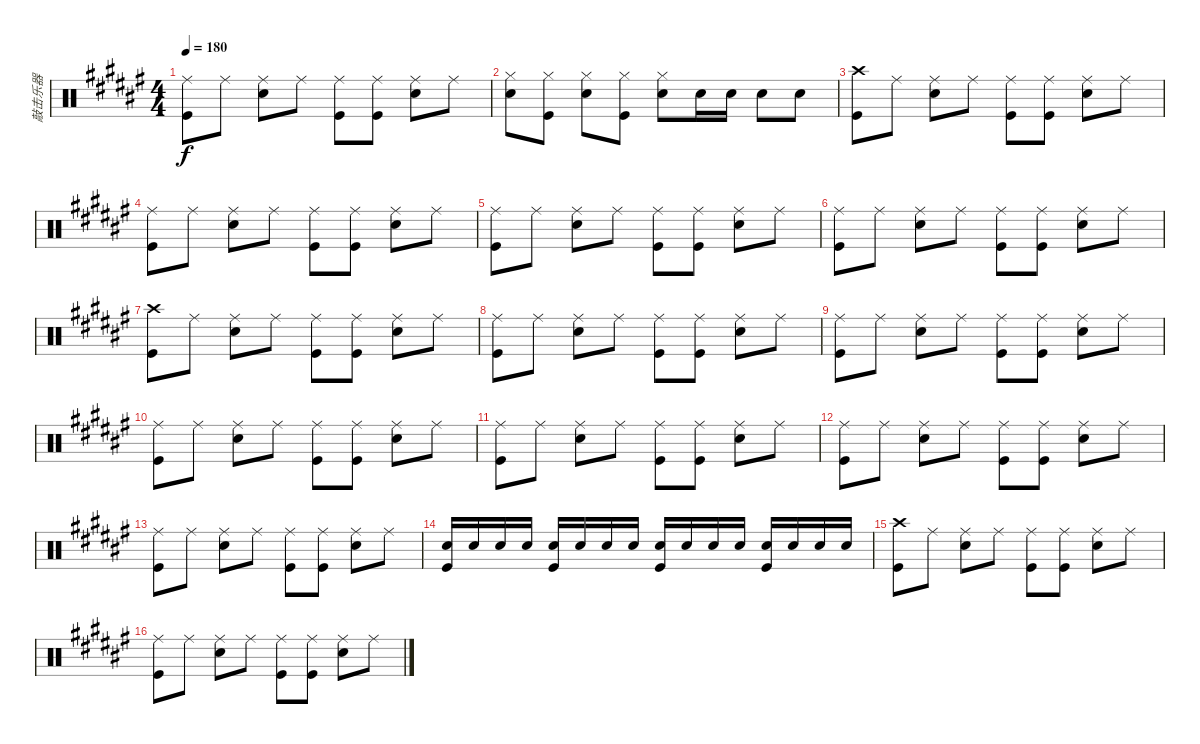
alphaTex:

\track ("敲击乐器" "敲击乐器") {instrument percussion}
\staff {score}
\articulation defaults
\ts (4 4)
\tempo 180
\clef neutral
\ks f#
("Ride (middle)" "Kick (hit)").8{dy f} "Ride (middle)".8 ("Ride (middle)" "Electric Snare (hit)").8 "Ride (middle)".8 ("Ride (middle)" "Kick (hit)").8 ("Ride (middle)" "Kick (hit)").8 ("Ride (middle)" "Electric Snare (hit)").8 "Ride (middle)".8 |
("Hi-Hat (closed)" "Electric Snare (hit)").8 ("Hi-Hat (closed)" "Kick (hit)").8 ("Hi-Hat (closed)" "Electric Snare (hit)").8 ("Hi-Hat (closed)" "Kick (hit)").8 ("Hi-Hat (closed)" "Electric Snare (hit)").8 "Electric Snare (hit)".16 "Electric Snare (hit)".16 "Electric Snare (hit)".8 "Electric Snare (hit)".8 |
("Crash high (hit)" "Kick (hit)").8 "Ride (middle)".8 ("Ride (middle)" "Electric Snare (hit)").8 "Ride (middle)".8 ("Ride (middle)" "Kick (hit)").8 ("Ride (middle)" "Kick (hit)").8 ("Ride (middle)" "Electric Snare (hit)").8 "Ride (middle)".8 |
("Ride (middle)" "Kick (hit)").8 "Ride (middle)".8 ("Ride (middle)" "Electric Snare (hit)").8 "Ride (middle)".8 ("Ride (middle)" "Kick (hit)").8 ("Ride (middle)" "Kick (hit)").8 ("Ride (middle)" "Electric Snare (hit)").8 "Ride (middle)".8 |
("Ride (middle)" "Kick (hit)").8 "Ride (middle)".8 ("Ride (middle)" "Electric Snare (hit)").8 "Ride (middle)".8 ("Ride (middle)" "Kick (hit)").8 ("Ride (middle)" "Kick (hit)").8 ("Ride (middle)" "Electric Snare (hit)").8 "Ride (middle)".8 |
("Ride (middle)" "Kick (hit)").8 "Ride (middle)".8 ("Ride (middle)" "Electric Snare (hit)").8 "Ride (middle)".8 ("Ride (middle)" "Kick (hit)").8 ("Ride (middle)" "Kick (hit)").8 ("Ride (middle)" "Electric Snare (hit)").8 "Ride (middle)".8 |
("Crash high (hit)" "Kick (hit)").8 "Ride (middle)".8 ("Ride (middle)" "Electric Snare (hit)").8 "Ride (middle)".8 ("Ride (middle)" "Kick (hit)").8 ("Ride (middle)" "Kick (hit)").8 ("Ride (middle)" "Electric Snare (hit)").8 "Ride (middle)".8 |
("Ride (middle)" "Kick (hit)").8 "Ride (middle)".8 ("Ride (middle)" "Electric Snare (hit)").8 "Ride (middle)".8 ("Ride (middle)" "Kick (hit)").8 ("Ride (middle)" "Kick (hit)").8 ("Ride (middle)" "Electric Snare (hit)").8 "Ride (middle)".8 |
("Ride (middle)" "Kick (hit)").8 "Ride (middle)".8 ("Ride (middle)" "Electric Snare (hit)").8 "Ride (middle)".8 ("Ride (middle)" "Kick (hit)").8 ("Ride (middle)" "Kick (hit)").8 ("Ride (middle)" "Electric Snare (hit)").8 "Ride (middle)".8 |
("Ride (middle)" "Kick (hit)").8 "Ride (middle)".8 ("Ride (middle)" "Electric Snare (hit)").8 "Ride (middle)".8 ("Ride (middle)" "Kick (hit)").8 ("Ride (middle)" "Kick (hit)").8 ("Ride (middle)" "Electric Snare (hit)").8 "Ride (middle)".8 |
("Ride (middle)" "Kick (hit)").8 "Ride (middle)".8 ("Ride (middle)" "Electric Snare (hit)").8 "Ride (middle)".8 ("Ride (middle)" "Kick (hit)").8 ("Ride (middle)" "Kick (hit)").8 ("Ride (middle)" "Electric Snare (hit)").8 "Ride (middle)".8 |
("Ride (middle)" "Kick (hit)").8 "Ride (middle)".8 ("Ride (middle)" "Electric Snare (hit)").8 "Ride (middle)".8 ("Ride (middle)" "Kick (hit)").8 ("Ride (middle)" "Kick (hit)").8 ("Ride (middle)" "Electric Snare (hit)").8 "Ride (middle)".8 |
("Ride (middle)" "Kick (hit)").8 "Ride (middle)".8 ("Ride (middle)" "Electric Snare (hit)").8 "Ride (middle)".8 ("Ride (middle)" "Kick (hit)").8 ("Ride (middle)" "Kick (hit)").8 ("Ride (middle)" "Electric Snare (hit)").8 "Ride (middle)".8 |
("Electric Snare (hit)" "Kick (hit)").16 "Electric Snare (hit)".16 "Electric Snare (hit)".16 "Electric Snare (hit)".16 ("Electric Snare (hit)" "Kick (hit)").16 "Electric Snare (hit)".16 "Electric Snare (hit)".16 "Electric Snare (hit)".16 ("Electric Snare (hit)" "Kick (hit)").16 "Electric Snare (hit)".16 "Electric Snare (hit)".16 "Electric Snare (hit)".16 ("Electric Snare (hit)" "Kick (hit)").16 "Electric Snare (hit)".16 "Electric Snare (hit)".16 "Electric Snare (hit)".16 |
("Crash high (hit)" "Kick (hit)").8 "Ride (middle)".8 ("Ride (middle)" "Electric Snare (hit)").8 "Ride (middle)".8 ("Ride (middle)" "Kick (hit)").8 ("Ride (middle)" "Kick (hit)").8 ("Ride (middle)" "Electric Snare (hit)").8 "Ride (middle)".8 |
("Ride (middle)" "Kick (hit)").8 "Ride (middle)".8 ("Ride (middle)" "Electric Snare (hit)").8 "Ride (middle)".8 ("Ride (middle)" "Kick (hit)").8 ("Ride (middle)" "Kick (hit)").8 ("Ride (middle)" "Electric Snare (hit)").8 "Ride (middle)".8
